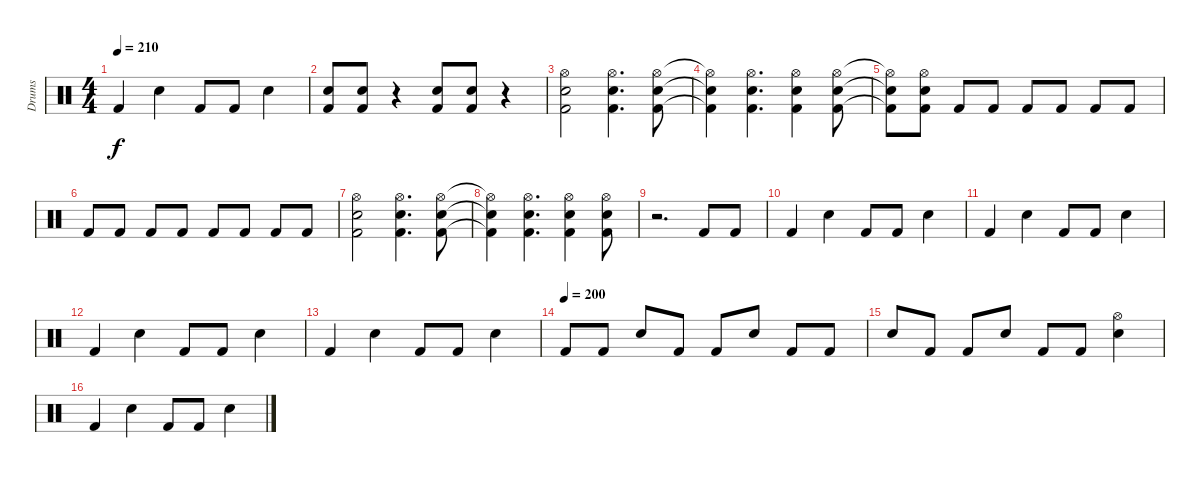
\track ("Drums" "Drums") {instrument percussion}
\staff {score}
\articulation defaults
\ts (4 4)
\tempo 210
\clef neutral
\ks c "Kick (hit) 2".4{dy f} "Snare (hit) 2".4 "Kick (hit) 2".8 "Kick (hit) 2".8 "Snare (hit) 2".4
|
("Kick (hit) 2" "Snare (hit) 2").8 ("Kick (hit) 2" "Snare (hit) 2").8 r.4 ("Kick (hit) 2" "Snare (hit) 2").8 ("Kick (hit) 2" "Snare (hit) 2").8 r.4 |
("Kick (hit) 2" "Hi-Hat (open)" "Snare (hit) 2").2 ("Kick (hit) 2" "Hi-Hat (open)" "Snare (hit) 2").4{d} ("Kick (hit) 2" "Hi-Hat (open)" "Snare (hit) 2").8 |
("Kick (hit) 2"{t} "Hi-Hat (open)"{t} "Snare (hit) 2"{t}).4 ("Kick (hit) 2" "Hi-Hat (open)" "Snare (hit) 2").4{d} ("Kick (hit) 2" "Hi-Hat (open)" "Snare (hit) 2").4 ("Kick (hit) 2" "Hi-Hat (open)" "Snare (hit) 2").8 |
("Kick (hit) 2"{t} "Hi-Hat (open)"{t} "Snare (hit) 2"{t}).8 ("Kick (hit) 2" "Hi-Hat (open)" "Snare (hit) 2").8 "Kick (hit) 2".8 "Kick (hit) 2".8 "Kick (hit) 2".8 "Kick (hit) 2".8 "Kick (hit) 2".8 "Kick (hit) 2".8 |
"Kick (hit) 2".8 "Kick (hit) 2".8 "Kick (hit) 2".8 "Kick (hit) 2".8 "Kick (hit) 2".8 "Kick (hit) 2".8 "Kick (hit) 2".8 "Kick (hit) 2".8 |
("Kick (hit) 2" "Hi-Hat (open)" "Snare (hit) 2").2 ("Kick (hit) 2" "Hi-Hat (open)" "Snare (hit) 2").4{d} ("Kick (hit) 2" "Hi-Hat (open)" "Snare (hit) 2").8 |
("Kick (hit) 2"{t} "Hi-Hat (open)"{t} "Snare (hit) 2"{t}).4 ("Kick (hit) 2" "Hi-Hat (open)" "Snare (hit) 2").4{d} ("Kick (hit) 2" "Hi-Hat (open)" "Snare (hit) 2").4 ("Kick (hit) 2" "Hi-Hat (open)" "Snare (hit) 2").8 |
r.2{d} "Kick (hit) 2".8 "Kick (hit) 2".8 |
"Kick (hit) 2".4 "Snare (hit) 2".4 "Kick (hit) 2".8 "Kick (hit) 2".8 "Snare (hit) 2".4 |
"Kick (hit) 2".4 "Snare (hit) 2".4 "Kick (hit) 2".8 "Kick (hit) 2".8 "Snare (hit) 2".4 |
"Kick (hit) 2".4 "Snare (hit) 2".4 "Kick (hit) 2".8 "Kick (hit) 2".8 "Snare (hit) 2".4 |
"Kick (hit) 2".4 "Snare (hit) 2".4 "Kick (hit) 2".8 "Kick (hit) 2".8 "Snare (hit) 2".4 |
\tempo (200)
"Kick (hit) 2".8 "Kick (hit) 2".8 "Snare (hit) 2".8 "Kick (hit) 2".8 "Kick (hit) 2".8 "Snare (hit) 2".8 "Kick (hit) 2".8 "Kick (hit) 2".8 |
"Snare (hit) 2".8 "Kick (hit) 2".8 "Kick (hit) 2".8 "Snare (hit) 2".8 "Kick (hit) 2".8 "Kick (hit) 2".8 ("Hi-Hat (open)" "Snare (hit) 2").4 |
"Kick (hit) 2".4 "Snare (hit) 2".4 "Kick (hit) 2".8 "Kick (hit) 2".8 "Snare (hit) 2".4
